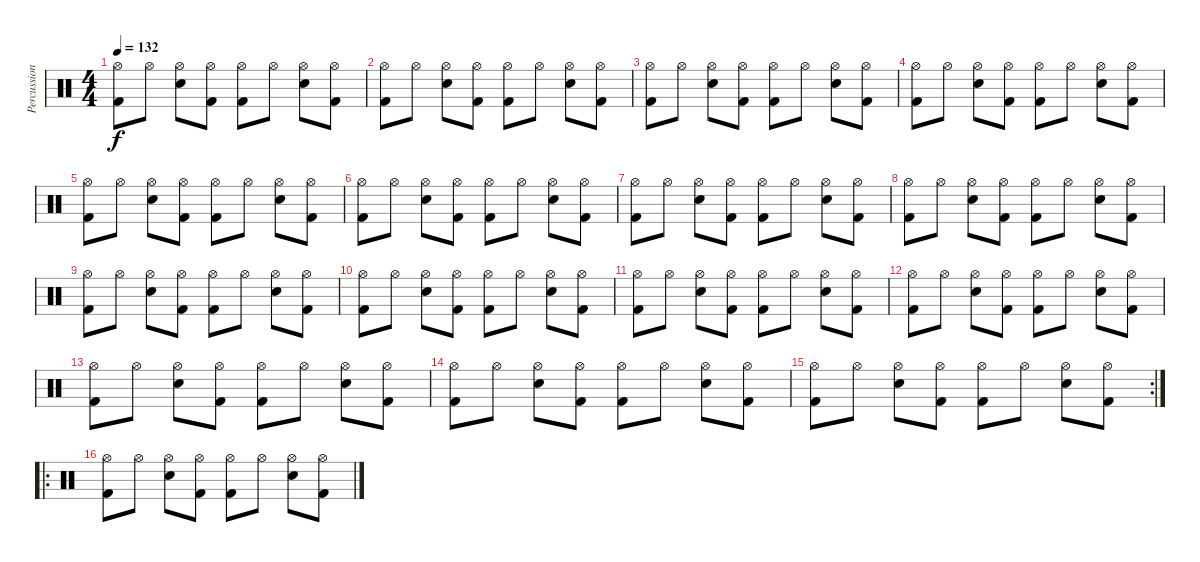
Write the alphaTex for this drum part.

\track ("Percussion" "Percussion") {instrument percussion}
\staff {score}
\articulation defaults
\ts (4 4)
\tempo 132
\clef neutral
\ks c
("Hi-Hat (open)" "Kick (hit) 2").8{dy f} "Hi-Hat (open)".8 ("Hi-Hat (open)" "Electric Snare (hit)").8 ("Hi-Hat (open)" "Kick (hit) 2").8 ("Hi-Hat (open)" "Kick (hit) 2").8 "Hi-Hat (open)".8 ("Hi-Hat (open)" "Electric Snare (hit)").8 ("Hi-Hat (open)" "Kick (hit) 2").8 |
("Hi-Hat (open)" "Kick (hit) 2").8 "Hi-Hat (open)".8 ("Hi-Hat (open)" "Electric Snare (hit)").8 ("Hi-Hat (open)" "Kick (hit) 2").8 ("Hi-Hat (open)" "Kick (hit) 2").8 "Hi-Hat (open)".8 ("Hi-Hat (open)" "Electric Snare (hit)").8 ("Hi-Hat (open)" "Kick (hit) 2").8 |
("Hi-Hat (open)" "Kick (hit) 2").8 "Hi-Hat (open)".8 ("Hi-Hat (open)" "Electric Snare (hit)").8 ("Hi-Hat (open)" "Kick (hit) 2").8 ("Hi-Hat (open)" "Kick (hit) 2").8 "Hi-Hat (open)".8 ("Hi-Hat (open)" "Electric Snare (hit)").8 ("Hi-Hat (open)" "Kick (hit) 2").8 |
("Hi-Hat (open)" "Kick (hit) 2").8 "Hi-Hat (open)".8 ("Hi-Hat (open)" "Electric Snare (hit)").8 ("Hi-Hat (open)" "Kick (hit) 2").8 ("Hi-Hat (open)" "Kick (hit) 2").8 "Hi-Hat (open)".8 ("Hi-Hat (open)" "Electric Snare (hit)").8 ("Hi-Hat (open)" "Kick (hit) 2").8 |
("Hi-Hat (open)" "Kick (hit) 2").8 "Hi-Hat (open)".8 ("Hi-Hat (open)" "Electric Snare (hit)").8 ("Hi-Hat (open)" "Kick (hit) 2").8 ("Hi-Hat (open)" "Kick (hit) 2").8 "Hi-Hat (open)".8 ("Hi-Hat (open)" "Electric Snare (hit)").8 ("Hi-Hat (open)" "Kick (hit) 2").8 |
("Hi-Hat (open)" "Kick (hit) 2").8 "Hi-Hat (open)".8 ("Hi-Hat (open)" "Electric Snare (hit)").8 ("Hi-Hat (open)" "Kick (hit) 2").8 ("Hi-Hat (open)" "Kick (hit) 2").8 "Hi-Hat (open)".8 ("Hi-Hat (open)" "Electric Snare (hit)").8 ("Hi-Hat (open)" "Kick (hit) 2").8 |
("Hi-Hat (open)" "Kick (hit) 2").8 "Hi-Hat (open)".8 ("Hi-Hat (open)" "Electric Snare (hit)").8 ("Hi-Hat (open)" "Kick (hit) 2").8 ("Hi-Hat (open)" "Kick (hit) 2").8 "Hi-Hat (open)".8 ("Hi-Hat (open)" "Electric Snare (hit)").8 ("Hi-Hat (open)" "Kick (hit) 2").8 |
("Hi-Hat (open)" "Kick (hit) 2").8 "Hi-Hat (open)".8 ("Hi-Hat (open)" "Electric Snare (hit)").8 ("Hi-Hat (open)" "Kick (hit) 2").8 ("Hi-Hat (open)" "Kick (hit) 2").8 "Hi-Hat (open)".8 ("Hi-Hat (open)" "Electric Snare (hit)").8 ("Hi-Hat (open)" "Kick (hit) 2").8 |
("Hi-Hat (open)" "Kick (hit) 2").8 "Hi-Hat (open)".8 ("Hi-Hat (open)" "Electric Snare (hit)").8 ("Hi-Hat (open)" "Kick (hit) 2").8 ("Hi-Hat (open)" "Kick (hit) 2").8 "Hi-Hat (open)".8 ("Hi-Hat (open)" "Electric Snare (hit)").8 ("Hi-Hat (open)" "Kick (hit) 2").8 |
("Hi-Hat (open)" "Kick (hit) 2").8 "Hi-Hat (open)".8 ("Hi-Hat (open)" "Electric Snare (hit)").8 ("Hi-Hat (open)" "Kick (hit) 2").8 ("Hi-Hat (open)" "Kick (hit) 2").8 "Hi-Hat (open)".8 ("Hi-Hat (open)" "Electric Snare (hit)").8 ("Hi-Hat (open)" "Kick (hit) 2").8 |
("Hi-Hat (open)" "Kick (hit) 2").8 "Hi-Hat (open)".8 ("Hi-Hat (open)" "Electric Snare (hit)").8 ("Hi-Hat (open)" "Kick (hit) 2").8 ("Hi-Hat (open)" "Kick (hit) 2").8 "Hi-Hat (open)".8 ("Hi-Hat (open)" "Electric Snare (hit)").8 ("Hi-Hat (open)" "Kick (hit) 2").8 |
("Hi-Hat (open)" "Kick (hit) 2").8 "Hi-Hat (open)".8 ("Hi-Hat (open)" "Electric Snare (hit)").8 ("Hi-Hat (open)" "Kick (hit) 2").8 ("Hi-Hat (open)" "Kick (hit) 2").8 "Hi-Hat (open)".8 ("Hi-Hat (open)" "Electric Snare (hit)").8 ("Hi-Hat (open)" "Kick (hit) 2").8 |
("Hi-Hat (open)" "Kick (hit) 2").8 "Hi-Hat (open)".8 ("Hi-Hat (open)" "Electric Snare (hit)").8 ("Hi-Hat (open)" "Kick (hit) 2").8 ("Hi-Hat (open)" "Kick (hit) 2").8 "Hi-Hat (open)".8 ("Hi-Hat (open)" "Electric Snare (hit)").8 ("Hi-Hat (open)" "Kick (hit) 2").8 |
("Hi-Hat (open)" "Kick (hit) 2").8 "Hi-Hat (open)".8 ("Hi-Hat (open)" "Electric Snare (hit)").8 ("Hi-Hat (open)" "Kick (hit) 2").8 ("Hi-Hat (open)" "Kick (hit) 2").8 "Hi-Hat (open)".8 ("Hi-Hat (open)" "Electric Snare (hit)").8 ("Hi-Hat (open)" "Kick (hit) 2").8 |
\rc 2
("Hi-Hat (open)" "Kick (hit) 2").8 "Hi-Hat (open)".8 ("Hi-Hat (open)" "Electric Snare (hit)").8 ("Hi-Hat (open)" "Kick (hit) 2").8 ("Hi-Hat (open)" "Kick (hit) 2").8 "Hi-Hat (open)".8 ("Hi-Hat (open)" "Electric Snare (hit)").8 ("Hi-Hat (open)" "Kick (hit) 2").8 |
\ro
("Hi-Hat (open)" "Kick (hit) 2").8 "Hi-Hat (open)".8 ("Hi-Hat (open)" "Electric Snare (hit)").8 ("Hi-Hat (open)" "Kick (hit) 2").8 ("Hi-Hat (open)" "Kick (hit) 2").8 "Hi-Hat (open)".8 ("Hi-Hat (open)" "Electric Snare (hit)").8 ("Hi-Hat (open)" "Kick (hit) 2").8
